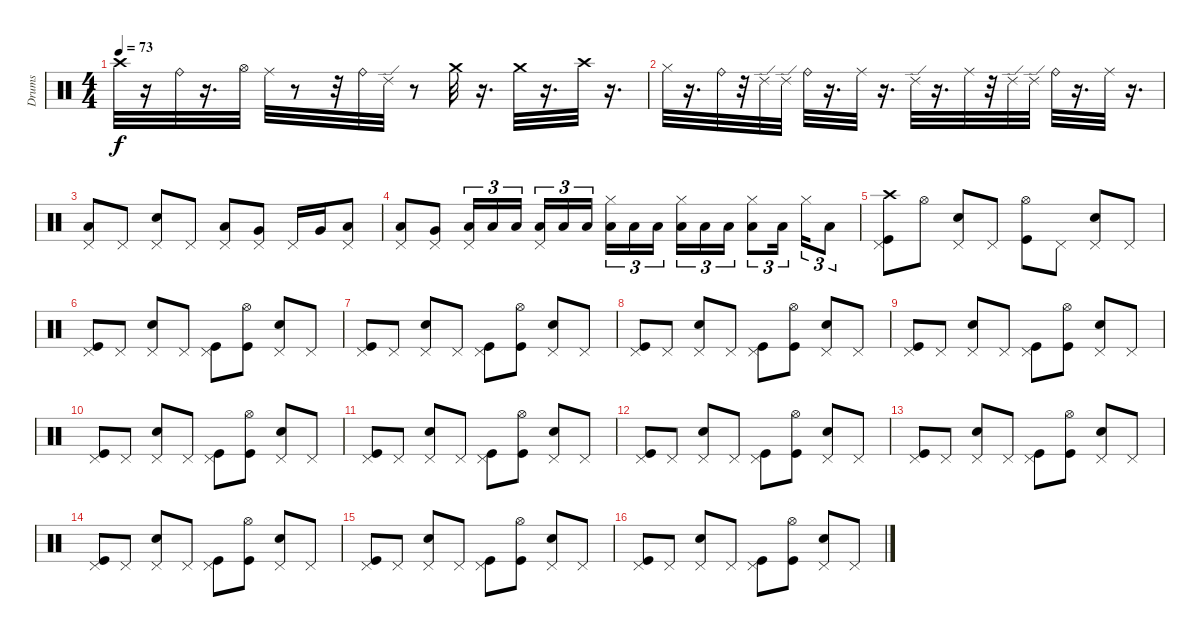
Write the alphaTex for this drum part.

\track ("Drums" "Drums") {instrument percussion}
\staff {score}
\articulation defaults
\ts (4 4)
\tempo 73
\clef neutral
\ks c "Crash high (hit)".32{dy f}
r.16 "Ride (bell)".32 r.16{d} "Hi-Hat (open)".32 "Ride (middle)".32 r.8 r.32 "Ride (bell)".32 "Ride (edge) 2".32 r.8 "Crash medium (hit)".32 r.16{d} "Crash medium (hit)".32 r.16{d} "Crash high (hit)".32 r.16{d} |
"Hi-Hat (closed)".32 r.16{d} "Ride (bell)".32 r.32 "Ride (edge) 2".32 "Ride (edge) 2".32 "Ride (bell)".32 r.16{d} "Ride (middle)".32 r.16{d} "Ride (edge) 2".32 r.16{d} "Ride (middle)".32 r.32 "Ride (edge) 2".32 "Ride (edge) 2".32 "Ride (bell)".32 r.16{d} "Ride (middle)".32 r.16{d} |
("Pedal Hi-Hat (hit)" "Low Tom (hit)").8 "Pedal Hi-Hat (hit)".8 ("Pedal Hi-Hat (hit)" "Snare (hit) 2").8 "Pedal Hi-Hat (hit)".8 ("Low Tom (hit)" "Pedal Hi-Hat (hit)").8 ("Very Low Tom (hit)" "Pedal Hi-Hat (hit)").8 "Pedal Hi-Hat (hit)".16 "Very Low Tom (hit)".16 ("Low Tom (hit)" "Pedal Hi-Hat (hit)").8 |
("Pedal Hi-Hat (hit)" "Low Tom (hit)").8 ("Pedal Hi-Hat (hit)" "Very Low Tom (hit)").8 ("Pedal Hi-Hat (hit)" "Low Tom (hit)").16{tu (3 2)} "Low Tom (hit)".16{tu (3 2)} "Low Tom (hit)".16{tu (3 2)} ("Pedal Hi-Hat (hit)" "Low Tom (hit)").16{tu (3 2)} "Low Tom (hit)".16{tu (3 2)} "Low Tom (hit)".16{tu (3 2)} ("Hi-Hat (closed)" "Low Tom (hit)").16{tu (3 2)} "Low Tom (hit)".16{tu (3 2)} "Low Tom (hit)".16{tu (3 2)} ("Hi-Hat (closed)" "Low Tom (hit)").16{tu (3 2)} "Low Tom (hit)".16{tu (3 2)} "Low Tom (hit)".16{tu (3 2)} ("Hi-Hat (closed)" "Low Tom (hit)").8{tu (3 2)} "Low Tom (hit)".16{tu (3 2)} "Hi-Hat (closed)".16{tu (3 2)} "Low Tom (hit)".8{tu (3 2)} |
("Kick (hit)" "Pedal Hi-Hat (hit)" "Crash high (hit)").8 "Hi-Hat (open)".8 ("Snare (hit) 2" "Pedal Hi-Hat (hit)").8 "Pedal Hi-Hat (hit)".8 ("Hi-Hat (open)" "Kick (hit)").8 "Pedal Hi-Hat (hit)".8 ("Snare (hit) 2" "Pedal Hi-Hat (hit)").8 "Pedal Hi-Hat (hit)".8 |
("Kick (hit)" "Pedal Hi-Hat (hit)").8 "Pedal Hi-Hat (hit)".8 ("Snare (hit) 2" "Pedal Hi-Hat (hit)").8 "Pedal Hi-Hat (hit)".8 ("Kick (hit)" "Pedal Hi-Hat (hit)").8 ("Kick (hit)" "Hi-Hat (open)").8 ("Snare (hit) 2" "Pedal Hi-Hat (hit)").8 "Pedal Hi-Hat (hit)".8 |
("Kick (hit)" "Pedal Hi-Hat (hit)").8 "Pedal Hi-Hat (hit)".8 ("Snare (hit) 2" "Pedal Hi-Hat (hit)").8 "Pedal Hi-Hat (hit)".8 ("Kick (hit)" "Pedal Hi-Hat (hit)").8 ("Kick (hit)" "Hi-Hat (open)").8 ("Snare (hit) 2" "Pedal Hi-Hat (hit)").8 "Pedal Hi-Hat (hit)".8 |
("Kick (hit)" "Pedal Hi-Hat (hit)").8 "Pedal Hi-Hat (hit)".8 ("Snare (hit) 2" "Pedal Hi-Hat (hit)").8 "Pedal Hi-Hat (hit)".8 ("Kick (hit)" "Pedal Hi-Hat (hit)").8 ("Kick (hit)" "Hi-Hat (open)").8 ("Snare (hit) 2" "Pedal Hi-Hat (hit)").8 "Pedal Hi-Hat (hit)".8 |
("Kick (hit)" "Pedal Hi-Hat (hit)").8 "Pedal Hi-Hat (hit)".8 ("Snare (hit) 2" "Pedal Hi-Hat (hit)").8 "Pedal Hi-Hat (hit)".8 ("Kick (hit)" "Pedal Hi-Hat (hit)").8 ("Kick (hit)" "Hi-Hat (open)").8 ("Snare (hit) 2" "Pedal Hi-Hat (hit)").8 "Pedal Hi-Hat (hit)".8 |
("Kick (hit)" "Pedal Hi-Hat (hit)").8 "Pedal Hi-Hat (hit)".8 ("Snare (hit) 2" "Pedal Hi-Hat (hit)").8 "Pedal Hi-Hat (hit)".8 ("Kick (hit)" "Pedal Hi-Hat (hit)").8 ("Kick (hit)" "Hi-Hat (open)").8 ("Snare (hit) 2" "Pedal Hi-Hat (hit)").8 "Pedal Hi-Hat (hit)".8 |
("Kick (hit)" "Pedal Hi-Hat (hit)").8 "Pedal Hi-Hat (hit)".8 ("Snare (hit) 2" "Pedal Hi-Hat (hit)").8 "Pedal Hi-Hat (hit)".8 ("Kick (hit)" "Pedal Hi-Hat (hit)").8 ("Kick (hit)" "Hi-Hat (open)").8 ("Snare (hit) 2" "Pedal Hi-Hat (hit)").8 "Pedal Hi-Hat (hit)".8 |
("Kick (hit)" "Pedal Hi-Hat (hit)").8 "Pedal Hi-Hat (hit)".8 ("Snare (hit) 2" "Pedal Hi-Hat (hit)").8 "Pedal Hi-Hat (hit)".8 ("Kick (hit)" "Pedal Hi-Hat (hit)").8 ("Kick (hit)" "Hi-Hat (open)").8 ("Snare (hit) 2" "Pedal Hi-Hat (hit)").8 "Pedal Hi-Hat (hit)".8 |
("Kick (hit)" "Pedal Hi-Hat (hit)").8 "Pedal Hi-Hat (hit)".8 ("Snare (hit) 2" "Pedal Hi-Hat (hit)").8 "Pedal Hi-Hat (hit)".8 ("Kick (hit)" "Pedal Hi-Hat (hit)").8 ("Kick (hit)" "Hi-Hat (open)").8 ("Snare (hit) 2" "Pedal Hi-Hat (hit)").8 "Pedal Hi-Hat (hit)".8 |
("Kick (hit)" "Pedal Hi-Hat (hit)").8 "Pedal Hi-Hat (hit)".8 ("Snare (hit) 2" "Pedal Hi-Hat (hit)").8 "Pedal Hi-Hat (hit)".8 ("Kick (hit)" "Pedal Hi-Hat (hit)").8 ("Kick (hit)" "Hi-Hat (open)").8 ("Snare (hit) 2" "Pedal Hi-Hat (hit)").8 "Pedal Hi-Hat (hit)".8 |
("Kick (hit)" "Pedal Hi-Hat (hit)").8 "Pedal Hi-Hat (hit)".8 ("Snare (hit) 2" "Pedal Hi-Hat (hit)").8 "Pedal Hi-Hat (hit)".8 ("Kick (hit)" "Pedal Hi-Hat (hit)").8 ("Kick (hit)" "Hi-Hat (open)").8 ("Snare (hit) 2" "Pedal Hi-Hat (hit)").8 "Pedal Hi-Hat (hit)".8 |
("Kick (hit)" "Pedal Hi-Hat (hit)").8 "Pedal Hi-Hat (hit)".8 ("Snare (hit) 2" "Pedal Hi-Hat (hit)").8 "Pedal Hi-Hat (hit)".8 ("Kick (hit)" "Pedal Hi-Hat (hit)").8 ("Kick (hit)" "Hi-Hat (open)").8 ("Snare (hit) 2" "Pedal Hi-Hat (hit)").8 "Pedal Hi-Hat (hit)".8
